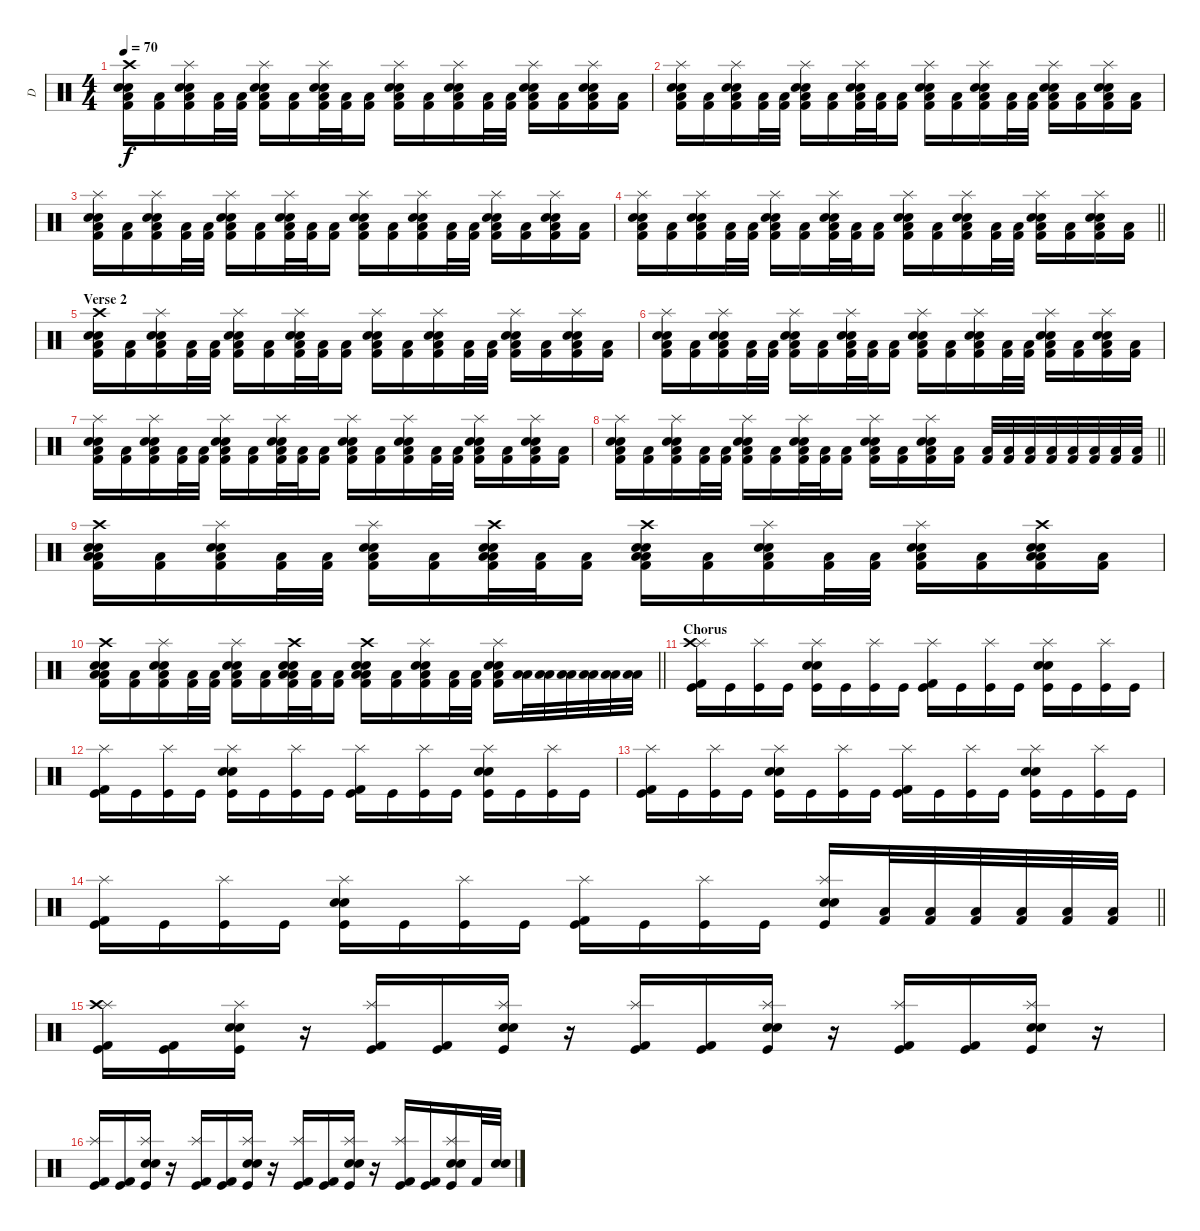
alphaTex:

\track ("D" "D") {instrument percussion}
\staff {score}
\articulation defaults
\ts (4 4)
\section ("" "")
\tempo 70
\clef neutral
\ks c
("Crash high (hit)" "Electric Snare (hit)" "Electric Snare (hit)" "Kick (hit) 2" "Low Floor Tom (hit)").16{dy f} ("Kick (hit) 2" "Low Floor Tom (hit)").16 ("Splash (hit)" "Electric Snare (hit)" "Electric Snare (hit)" "Kick (hit) 2" "Low Floor Tom (hit)").16 ("Kick (hit) 2" "Low Floor Tom (hit)").32 ("Kick (hit) 2" "Low Floor Tom (hit)").32 ("Splash (hit)" "Electric Snare (hit)" "Electric Snare (hit)" "Kick (hit) 2" "Low Floor Tom (hit)").16 ("Kick (hit) 2" "Low Floor Tom (hit)").16 ("Splash (hit)" "Electric Snare (hit)" "Electric Snare (hit)" "Kick (hit) 2" "Low Floor Tom (hit)").32 ("Kick (hit) 2" "Low Floor Tom (hit)").32 ("Kick (hit) 2" "Low Floor Tom (hit)").16 ("Splash (hit)" "Electric Snare (hit)" "Electric Snare (hit)" "Kick (hit) 2" "Low Floor Tom (hit)").16 ("Kick (hit) 2" "Low Floor Tom (hit)").16 ("Splash (hit)" "Electric Snare (hit)" "Electric Snare (hit)" "Kick (hit) 2" "Low Floor Tom (hit)").16 ("Kick (hit) 2" "Low Floor Tom (hit)").32 ("Kick (hit) 2" "Low Floor Tom (hit)").32 ("Splash (hit)" "Electric Snare (hit)" "Electric Snare (hit)" "Kick (hit) 2" "Low Floor Tom (hit)").16 ("Kick (hit) 2" "Low Floor Tom (hit)").16 ("Splash (hit)" "Electric Snare (hit)" "Electric Snare (hit)" "Kick (hit) 2" "Low Floor Tom (hit)").16 ("Kick (hit) 2" "Low Floor Tom (hit)").16 |
("Splash (hit)" "Electric Snare (hit)" "Electric Snare (hit)" "Kick (hit) 2" "Low Floor Tom (hit)").16 ("Kick (hit) 2" "Low Floor Tom (hit)").16 ("Splash (hit)" "Electric Snare (hit)" "Electric Snare (hit)" "Kick (hit) 2" "Low Floor Tom (hit)").16 ("Kick (hit) 2" "Low Floor Tom (hit)").32 ("Kick (hit) 2" "Low Floor Tom (hit)").32 ("Splash (hit)" "Electric Snare (hit)" "Electric Snare (hit)" "Kick (hit) 2" "Low Floor Tom (hit)").16 ("Kick (hit) 2" "Low Floor Tom (hit)").16 ("Splash (hit)" "Electric Snare (hit)" "Electric Snare (hit)" "Kick (hit) 2" "Low Floor Tom (hit)").32 ("Kick (hit) 2" "Low Floor Tom (hit)").32 ("Kick (hit) 2" "Low Floor Tom (hit)").16 ("Splash (hit)" "Electric Snare (hit)" "Electric Snare (hit)" "Kick (hit) 2" "Low Floor Tom (hit)").16 ("Kick (hit) 2" "Low Floor Tom (hit)").16 ("Splash (hit)" "Electric Snare (hit)" "Electric Snare (hit)" "Kick (hit) 2" "Low Floor Tom (hit)").16 ("Kick (hit) 2" "Low Floor Tom (hit)").32 ("Kick (hit) 2" "Low Floor Tom (hit)").32 ("Splash (hit)" "Electric Snare (hit)" "Electric Snare (hit)" "Kick (hit) 2" "Low Floor Tom (hit)").16 ("Kick (hit) 2" "Low Floor Tom (hit)").16 ("Splash (hit)" "Electric Snare (hit)" "Electric Snare (hit)" "Kick (hit) 2" "Low Floor Tom (hit)").16 ("Kick (hit) 2" "Low Floor Tom (hit)").16 |
("Splash (hit)" "Electric Snare (hit)" "Electric Snare (hit)" "Kick (hit) 2" "Low Floor Tom (hit)").16 ("Kick (hit) 2" "Low Floor Tom (hit)").16 ("Splash (hit)" "Electric Snare (hit)" "Electric Snare (hit)" "Kick (hit) 2" "Low Floor Tom (hit)").16 ("Kick (hit) 2" "Low Floor Tom (hit)").32 ("Kick (hit) 2" "Low Floor Tom (hit)").32 ("Splash (hit)" "Electric Snare (hit)" "Electric Snare (hit)" "Kick (hit) 2" "Low Floor Tom (hit)").16 ("Kick (hit) 2" "Low Floor Tom (hit)").16 ("Splash (hit)" "Electric Snare (hit)" "Electric Snare (hit)" "Kick (hit) 2" "Low Floor Tom (hit)").32 ("Kick (hit) 2" "Low Floor Tom (hit)").32 ("Kick (hit) 2" "Low Floor Tom (hit)").16 ("Splash (hit)" "Electric Snare (hit)" "Electric Snare (hit)" "Kick (hit) 2" "Low Floor Tom (hit)").16 ("Kick (hit) 2" "Low Floor Tom (hit)").16 ("Splash (hit)" "Electric Snare (hit)" "Electric Snare (hit)" "Kick (hit) 2" "Low Floor Tom (hit)").16 ("Kick (hit) 2" "Low Floor Tom (hit)").32 ("Kick (hit) 2" "Low Floor Tom (hit)").32 ("Splash (hit)" "Electric Snare (hit)" "Electric Snare (hit)" "Kick (hit) 2" "Low Floor Tom (hit)").16 ("Kick (hit) 2" "Low Floor Tom (hit)").16 ("Splash (hit)" "Electric Snare (hit)" "Electric Snare (hit)" "Kick (hit) 2" "Low Floor Tom (hit)").16 ("Kick (hit) 2" "Low Floor Tom (hit)").16 |
\barLineRight lightlight
("Splash (hit)" "Electric Snare (hit)" "Electric Snare (hit)" "Kick (hit) 2" "Low Floor Tom (hit)").16 ("Kick (hit) 2" "Low Floor Tom (hit)").16 ("Splash (hit)" "Electric Snare (hit)" "Electric Snare (hit)" "Kick (hit) 2" "Low Floor Tom (hit)").16 ("Kick (hit) 2" "Low Floor Tom (hit)").32 ("Kick (hit) 2" "Low Floor Tom (hit)").32 ("Splash (hit)" "Electric Snare (hit)" "Electric Snare (hit)" "Kick (hit) 2" "Low Floor Tom (hit)").16 ("Kick (hit) 2" "Low Floor Tom (hit)").16 ("Splash (hit)" "Electric Snare (hit)" "Electric Snare (hit)" "Kick (hit) 2" "Low Floor Tom (hit)").32 ("Kick (hit) 2" "Low Floor Tom (hit)").32 ("Kick (hit) 2" "Low Floor Tom (hit)").16 ("Splash (hit)" "Electric Snare (hit)" "Electric Snare (hit)" "Kick (hit) 2" "Low Floor Tom (hit)").16 ("Kick (hit) 2" "Low Floor Tom (hit)").16 ("Splash (hit)" "Electric Snare (hit)" "Electric Snare (hit)" "Kick (hit) 2" "Low Floor Tom (hit)").16 ("Kick (hit) 2" "Low Floor Tom (hit)").32 ("Kick (hit) 2" "Low Floor Tom (hit)").32 ("Splash (hit)" "Electric Snare (hit)" "Electric Snare (hit)" "Kick (hit) 2" "Low Floor Tom (hit)").16 ("Kick (hit) 2" "Low Floor Tom (hit)").16 ("Splash (hit)" "Electric Snare (hit)" "Electric Snare (hit)" "Kick (hit) 2" "Low Floor Tom (hit)").16 ("Kick (hit) 2" "Low Floor Tom (hit)").16 |
\section ("" "Verse 2")
("Crash high (hit)" "Electric Snare (hit)" "Electric Snare (hit)" "Kick (hit) 2" "Low Floor Tom (hit)").16 ("Kick (hit) 2" "Low Floor Tom (hit)").16 ("Splash (hit)" "Electric Snare (hit)" "Electric Snare (hit)" "Kick (hit) 2" "Low Floor Tom (hit)").16 ("Kick (hit) 2" "Low Floor Tom (hit)").32 ("Kick (hit) 2" "Low Floor Tom (hit)").32 ("Splash (hit)" "Electric Snare (hit)" "Electric Snare (hit)" "Kick (hit) 2" "Low Floor Tom (hit)").16 ("Kick (hit) 2" "Low Floor Tom (hit)").16 ("Splash (hit)" "Electric Snare (hit)" "Electric Snare (hit)" "Kick (hit) 2" "Low Floor Tom (hit)").32 ("Kick (hit) 2" "Low Floor Tom (hit)").32 ("Kick (hit) 2" "Low Floor Tom (hit)").16 ("Splash (hit)" "Electric Snare (hit)" "Electric Snare (hit)" "Kick (hit) 2" "Low Floor Tom (hit)").16 ("Kick (hit) 2" "Low Floor Tom (hit)").16 ("Splash (hit)" "Electric Snare (hit)" "Electric Snare (hit)" "Kick (hit) 2" "Low Floor Tom (hit)").16 ("Kick (hit) 2" "Low Floor Tom (hit)").32 ("Kick (hit) 2" "Low Floor Tom (hit)").32 ("Splash (hit)" "Electric Snare (hit)" "Electric Snare (hit)" "Kick (hit) 2" "Low Floor Tom (hit)").16 ("Kick (hit) 2" "Low Floor Tom (hit)").16 ("Splash (hit)" "Electric Snare (hit)" "Electric Snare (hit)" "Kick (hit) 2" "Low Floor Tom (hit)").16 ("Kick (hit) 2" "Low Floor Tom (hit)").16 |
("Splash (hit)" "Electric Snare (hit)" "Electric Snare (hit)" "Kick (hit) 2" "Low Floor Tom (hit)").16 ("Kick (hit) 2" "Low Floor Tom (hit)").16 ("Splash (hit)" "Electric Snare (hit)" "Electric Snare (hit)" "Kick (hit) 2" "Low Floor Tom (hit)").16 ("Kick (hit) 2" "Low Floor Tom (hit)").32 ("Kick (hit) 2" "Low Floor Tom (hit)").32 ("Splash (hit)" "Electric Snare (hit)" "Electric Snare (hit)" "Kick (hit) 2" "Low Floor Tom (hit)").16 ("Kick (hit) 2" "Low Floor Tom (hit)").16 ("Splash (hit)" "Electric Snare (hit)" "Electric Snare (hit)" "Kick (hit) 2" "Low Floor Tom (hit)").32 ("Kick (hit) 2" "Low Floor Tom (hit)").32 ("Kick (hit) 2" "Low Floor Tom (hit)").16 ("Splash (hit)" "Electric Snare (hit)" "Electric Snare (hit)" "Kick (hit) 2" "Low Floor Tom (hit)").16 ("Kick (hit) 2" "Low Floor Tom (hit)").16 ("Splash (hit)" "Electric Snare (hit)" "Electric Snare (hit)" "Kick (hit) 2" "Low Floor Tom (hit)").16 ("Kick (hit) 2" "Low Floor Tom (hit)").32 ("Kick (hit) 2" "Low Floor Tom (hit)").32 ("Splash (hit)" "Electric Snare (hit)" "Electric Snare (hit)" "Kick (hit) 2" "Low Floor Tom (hit)").16 ("Kick (hit) 2" "Low Floor Tom (hit)").16 ("Splash (hit)" "Electric Snare (hit)" "Electric Snare (hit)" "Kick (hit) 2" "Low Floor Tom (hit)").16 ("Kick (hit) 2" "Low Floor Tom (hit)").16 |
("Splash (hit)" "Electric Snare (hit)" "Electric Snare (hit)" "Kick (hit) 2" "Low Floor Tom (hit)").16 ("Kick (hit) 2" "Low Floor Tom (hit)").16 ("Splash (hit)" "Electric Snare (hit)" "Electric Snare (hit)" "Kick (hit) 2" "Low Floor Tom (hit)").16 ("Kick (hit) 2" "Low Floor Tom (hit)").32 ("Kick (hit) 2" "Low Floor Tom (hit)").32 ("Splash (hit)" "Electric Snare (hit)" "Electric Snare (hit)" "Kick (hit) 2" "Low Floor Tom (hit)").16 ("Kick (hit) 2" "Low Floor Tom (hit)").16 ("Splash (hit)" "Electric Snare (hit)" "Electric Snare (hit)" "Kick (hit) 2" "Low Floor Tom (hit)").32 ("Kick (hit) 2" "Low Floor Tom (hit)").32 ("Kick (hit) 2" "Low Floor Tom (hit)").16 ("Splash (hit)" "Electric Snare (hit)" "Electric Snare (hit)" "Kick (hit) 2" "Low Floor Tom (hit)").16 ("Kick (hit) 2" "Low Floor Tom (hit)").16 ("Splash (hit)" "Electric Snare (hit)" "Electric Snare (hit)" "Kick (hit) 2" "Low Floor Tom (hit)").16 ("Kick (hit) 2" "Low Floor Tom (hit)").32 ("Kick (hit) 2" "Low Floor Tom (hit)").32 ("Splash (hit)" "Electric Snare (hit)" "Electric Snare (hit)" "Kick (hit) 2" "Low Floor Tom (hit)").16 ("Kick (hit) 2" "Low Floor Tom (hit)").16 ("Splash (hit)" "Electric Snare (hit)" "Electric Snare (hit)" "Kick (hit) 2" "Low Floor Tom (hit)").16 ("Kick (hit) 2" "Low Floor Tom (hit)").16 |
\barLineRight lightlight
("Splash (hit)" "Electric Snare (hit)" "Electric Snare (hit)" "Kick (hit) 2" "Low Floor Tom (hit)").16 ("Kick (hit) 2" "Low Floor Tom (hit)").16 ("Splash (hit)" "Electric Snare (hit)" "Electric Snare (hit)" "Kick (hit) 2" "Low Floor Tom (hit)").16 ("Kick (hit) 2" "Low Floor Tom (hit)").32 ("Kick (hit) 2" "Low Floor Tom (hit)").32 ("Splash (hit)" "Electric Snare (hit)" "Electric Snare (hit)" "Kick (hit) 2" "Low Floor Tom (hit)").16 ("Kick (hit) 2" "Low Floor Tom (hit)").16 ("Splash (hit)" "Electric Snare (hit)" "Electric Snare (hit)" "Kick (hit) 2" "Low Floor Tom (hit)").32 ("Kick (hit) 2" "Low Floor Tom (hit)").32 ("Kick (hit) 2" "Low Floor Tom (hit)").16 ("Splash (hit)" "Electric Snare (hit)" "Electric Snare (hit)" "Kick (hit) 2" "Low Floor Tom (hit)").16 ("Kick (hit) 2" "Low Floor Tom (hit)").16 ("Splash (hit)" "Electric Snare (hit)" "Electric Snare (hit)" "Kick (hit) 2" "Low Floor Tom (hit)").16 ("Kick (hit) 2" "Low Floor Tom (hit)").16 ("Kick (hit) 2" "Low Floor Tom (hit)").32 ("Kick (hit) 2" "Low Floor Tom (hit)").32 ("Kick (hit) 2" "Low Floor Tom (hit)").32 ("Kick (hit) 2" "Low Floor Tom (hit)").32 ("Kick (hit) 2" "Low Floor Tom (hit)").32 ("Kick (hit) 2" "Low Floor Tom (hit)").32 ("Kick (hit) 2" "Low Floor Tom (hit)").32 ("Kick (hit) 2" "Low Floor Tom (hit)").32 |
("Crash high (hit)" "Electric Snare (hit)" "Electric Snare (hit)" "Low Tom (hit)" "Kick (hit) 2" "Low Floor Tom (hit)").16 ("Kick (hit) 2" "Low Floor Tom (hit)").16 ("Splash (hit)" "Electric Snare (hit)" "Electric Snare (hit)" "Kick (hit) 2" "Low Floor Tom (hit)").16 ("Kick (hit) 2" "Low Floor Tom (hit)").32 ("Kick (hit) 2" "Low Floor Tom (hit)").32 ("Splash (hit)" "Electric Snare (hit)" "Electric Snare (hit)" "Kick (hit) 2" "Low Floor Tom (hit)").16 ("Kick (hit) 2" "Low Floor Tom (hit)").16 ("Crash high (hit)" "Electric Snare (hit)" "Electric Snare (hit)" "Low Tom (hit)" "Kick (hit) 2" "Low Floor Tom (hit)").32 ("Kick (hit) 2" "Low Floor Tom (hit)").32 ("Kick (hit) 2" "Low Floor Tom (hit)").16 ("Crash high (hit)" "Electric Snare (hit)" "Electric Snare (hit)" "Low Tom (hit)" "Kick (hit) 2" "Low Floor Tom (hit)").16 ("Kick (hit) 2" "Low Floor Tom (hit)").16 ("Splash (hit)" "Electric Snare (hit)" "Electric Snare (hit)" "Kick (hit) 2" "Low Floor Tom (hit)").16 ("Kick (hit) 2" "Low Floor Tom (hit)").32 ("Kick (hit) 2" "Low Floor Tom (hit)").32 ("Splash (hit)" "Electric Snare (hit)" "Electric Snare (hit)" "Kick (hit) 2" "Low Floor Tom (hit)").16 ("Kick (hit) 2" "Low Floor Tom (hit)").16 ("Crash high (hit)" "Electric Snare (hit)" "Electric Snare (hit)" "Low Tom (hit)" "Kick (hit) 2" "Low Floor Tom (hit)").16 ("Kick (hit) 2" "Low Floor Tom (hit)").16 |
\barLineRight lightlight
("Crash high (hit)" "Electric Snare (hit)" "Electric Snare (hit)" "Low Tom (hit)" "Kick (hit) 2" "Low Floor Tom (hit)").16 ("Kick (hit) 2" "Low Floor Tom (hit)").16 ("Splash (hit)" "Electric Snare (hit)" "Electric Snare (hit)" "Kick (hit) 2" "Low Floor Tom (hit)").16 ("Kick (hit) 2" "Low Floor Tom (hit)").32 ("Kick (hit) 2" "Low Floor Tom (hit)").32 ("Splash (hit)" "Electric Snare (hit)" "Electric Snare (hit)" "Kick (hit) 2" "Low Floor Tom (hit)").16 ("Kick (hit) 2" "Low Floor Tom (hit)").16 ("Crash high (hit)" "Electric Snare (hit)" "Electric Snare (hit)" "Low Tom (hit)" "Kick (hit) 2" "Low Floor Tom (hit)").32 ("Kick (hit) 2" "Low Floor Tom (hit)").32 ("Kick (hit) 2" "Low Floor Tom (hit)").16 ("Crash high (hit)" "Electric Snare (hit)" "Electric Snare (hit)" "Low Tom (hit)" "Kick (hit) 2" "Low Floor Tom (hit)").16 ("Kick (hit) 2" "Low Floor Tom (hit)").16 ("Splash (hit)" "Electric Snare (hit)" "Electric Snare (hit)" "Kick (hit) 2" "Low Floor Tom (hit)").16 ("Kick (hit) 2" "Low Floor Tom (hit)").32 ("Kick (hit) 2" "Low Floor Tom (hit)").32 ("Splash (hit)" "Electric Snare (hit)" "Electric Snare (hit)" "Kick (hit) 2" "Low Floor Tom (hit)").16 ("Low Tom (hit)" "Low Floor Tom (hit)").32 ("Low Tom (hit)" "Low Floor Tom (hit)").32 ("Low Tom (hit)" "Low Floor Tom (hit)").32 ("Low Tom (hit)" "Low Floor Tom (hit)").32 ("Low Tom (hit)" "Low Floor Tom (hit)").32 ("Low Tom (hit)" "Low Floor Tom (hit)").32 |
\section ("" "Chorus")
("Splash (hit)" "Crash high (hit)" "Kick (hit) 2" "Kick (hit)").16 "Kick (hit)".16 ("Splash (hit)" "Kick (hit)").16 "Kick (hit)".16 ("Splash (hit)" "Electric Snare (hit)" "Electric Snare (hit)" "Kick (hit)").16 "Kick (hit)".16 ("Splash (hit)" "Kick (hit)").16 "Kick (hit)".16 ("Splash (hit)" "Kick (hit) 2" "Kick (hit)").16 "Kick (hit)".16 ("Splash (hit)" "Kick (hit)").16 "Kick (hit)".16 ("Splash (hit)" "Electric Snare (hit)" "Electric Snare (hit)" "Kick (hit)").16 "Kick (hit)".16 ("Splash (hit)" "Kick (hit)").16 "Kick (hit)".16 |
("Splash (hit)" "Kick (hit) 2" "Kick (hit)").16 "Kick (hit)".16 ("Splash (hit)" "Kick (hit)").16 "Kick (hit)".16 ("Splash (hit)" "Electric Snare (hit)" "Electric Snare (hit)" "Kick (hit)").16 "Kick (hit)".16 ("Splash (hit)" "Kick (hit)").16 "Kick (hit)".16 ("Splash (hit)" "Kick (hit) 2" "Kick (hit)").16 "Kick (hit)".16 ("Splash (hit)" "Kick (hit)").16 "Kick (hit)".16 ("Splash (hit)" "Electric Snare (hit)" "Electric Snare (hit)" "Kick (hit)").16 "Kick (hit)".16 ("Splash (hit)" "Kick (hit)").16 "Kick (hit)".16 |
("Splash (hit)" "Kick (hit) 2" "Kick (hit)").16 "Kick (hit)".16 ("Splash (hit)" "Kick (hit)").16 "Kick (hit)".16 ("Splash (hit)" "Electric Snare (hit)" "Electric Snare (hit)" "Kick (hit)").16 "Kick (hit)".16 ("Splash (hit)" "Kick (hit)").16 "Kick (hit)".16 ("Splash (hit)" "Kick (hit) 2" "Kick (hit)").16 "Kick (hit)".16 ("Splash (hit)" "Kick (hit)").16 "Kick (hit)".16 ("Splash (hit)" "Electric Snare (hit)" "Electric Snare (hit)" "Kick (hit)").16 "Kick (hit)".16 ("Splash (hit)" "Kick (hit)").16 "Kick (hit)".16 |
\barLineRight lightlight
("Splash (hit)" "Kick (hit) 2" "Kick (hit)").16 "Kick (hit)".16 ("Splash (hit)" "Kick (hit)").16 "Kick (hit)".16 ("Splash (hit)" "Electric Snare (hit)" "Electric Snare (hit)" "Kick (hit)").16 "Kick (hit)".16 ("Splash (hit)" "Kick (hit)").16 "Kick (hit)".16 ("Splash (hit)" "Kick (hit) 2" "Kick (hit)").16 "Kick (hit)".16 ("Splash (hit)" "Kick (hit)").16 "Kick (hit)".16 ("Splash (hit)" "Electric Snare (hit)" "Electric Snare (hit)" "Kick (hit)").16 ("Kick (hit) 2" "Low Floor Tom (hit)").32 ("Kick (hit) 2" "Low Floor Tom (hit)").32 ("Kick (hit) 2" "Low Floor Tom (hit)").32 ("Kick (hit) 2" "Low Floor Tom (hit)").32 ("Kick (hit) 2" "Low Floor Tom (hit)").32 ("Kick (hit) 2" "Low Floor Tom (hit)").32 |
("Splash (hit)" "Crash high (hit)" "Kick (hit) 2" "Kick (hit)").16 ("Kick (hit) 2" "Kick (hit)").16 ("Splash (hit)" "Electric Snare (hit)" "Electric Snare (hit)" "Kick (hit)").16 r.16 ("Splash (hit)" "Kick (hit) 2" "Kick (hit)").16 ("Kick (hit) 2" "Kick (hit)").16 ("Splash (hit)" "Electric Snare (hit)" "Electric Snare (hit)" "Kick (hit)").16 r.16 ("Splash (hit)" "Kick (hit) 2" "Kick (hit)").16 ("Kick (hit) 2" "Kick (hit)").16 ("Splash (hit)" "Electric Snare (hit)" "Electric Snare (hit)" "Kick (hit)").16 r.16 ("Splash (hit)" "Kick (hit) 2" "Kick (hit)").16 ("Kick (hit) 2" "Kick (hit)").16 ("Splash (hit)" "Electric Snare (hit)" "Electric Snare (hit)" "Kick (hit)").16 r.16 |
("Splash (hit)" "Kick (hit) 2" "Kick (hit)").16 ("Kick (hit) 2" "Kick (hit)").16 ("Splash (hit)" "Electric Snare (hit)" "Electric Snare (hit)" "Kick (hit)").16 r.16 ("Splash (hit)" "Kick (hit) 2" "Kick (hit)").16 ("Kick (hit) 2" "Kick (hit)").16 ("Splash (hit)" "Electric Snare (hit)" "Electric Snare (hit)" "Kick (hit)").16 r.16 ("Splash (hit)" "Kick (hit) 2" "Kick (hit)").16 ("Kick (hit) 2" "Kick (hit)").16 ("Splash (hit)" "Electric Snare (hit)" "Electric Snare (hit)" "Kick (hit)").16 r.16 ("Splash (hit)" "Kick (hit) 2" "Kick (hit)").16 ("Kick (hit) 2" "Kick (hit)").16 ("Splash (hit)" "Electric Snare (hit)" "Electric Snare (hit)" "Kick (hit)").16 "Kick (hit) 2".32 ("Electric Snare (hit)" "Electric Snare (hit)").32
